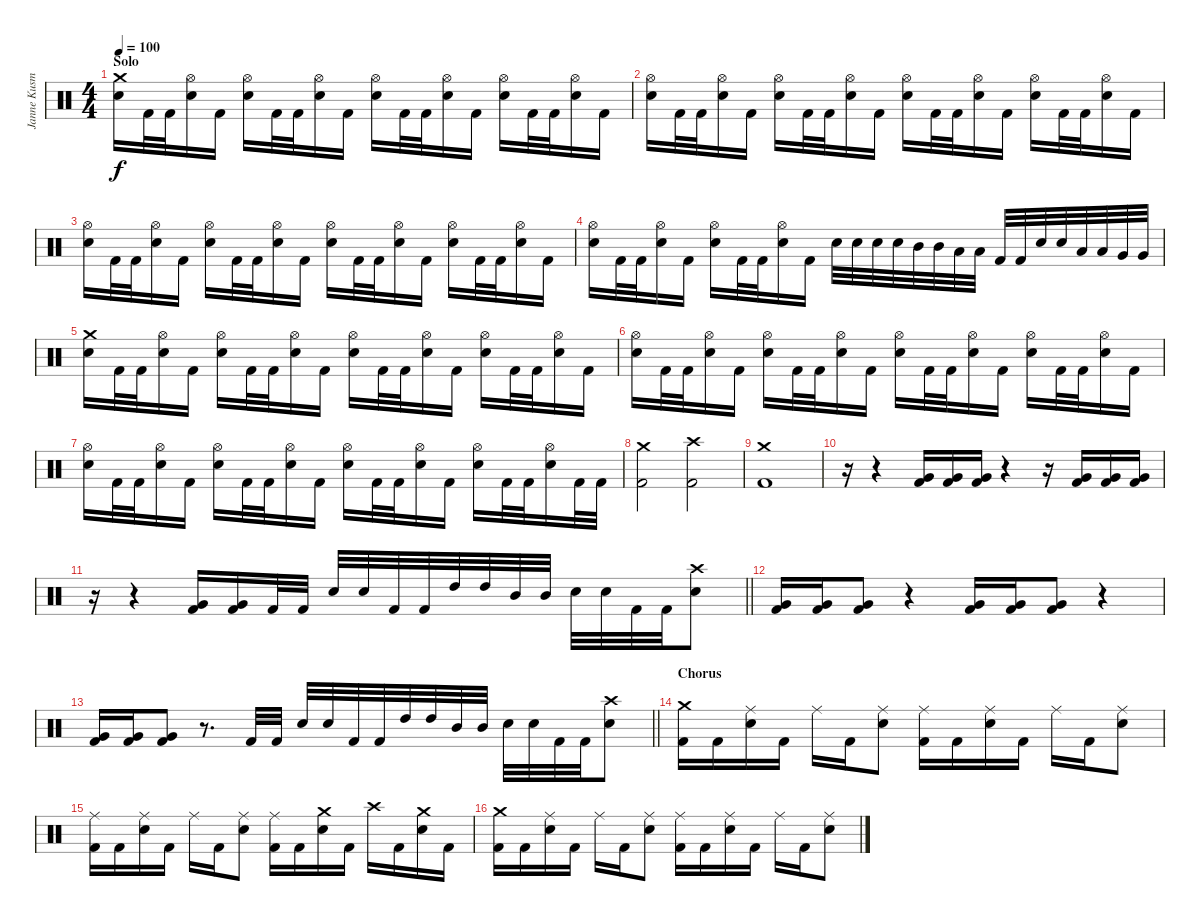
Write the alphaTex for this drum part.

\track ("Janne Kusmin " "Janne Kusm") {instrument percussion}
\staff {score}
\articulation defaults
\ts (4 4)
\section ("" "Solo")
\tempo 100
\clef neutral
\ks c
("Crash medium (hit)" "Electric Snare (hit)").16{dy f} "Kick (hit) 2".32 "Kick (hit) 2".32 ("Hi-Hat (open)" "Electric Snare (hit)").16 "Kick (hit) 2".16 ("Hi-Hat (open)" "Electric Snare (hit)").16 "Kick (hit) 2".32 "Kick (hit) 2".32 ("Hi-Hat (open)" "Electric Snare (hit)").16 "Kick (hit) 2".16 ("Hi-Hat (open)" "Electric Snare (hit)").16 "Kick (hit) 2".32 "Kick (hit) 2".32 ("Hi-Hat (open)" "Electric Snare (hit)").16 "Kick (hit) 2".16 ("Hi-Hat (open)" "Electric Snare (hit)").16 "Kick (hit) 2".32 "Kick (hit) 2".32 ("Hi-Hat (open)" "Electric Snare (hit)").16 "Kick (hit) 2".16 |
("Hi-Hat (open)" "Electric Snare (hit)").16 "Kick (hit) 2".32 "Kick (hit) 2".32 ("Hi-Hat (open)" "Electric Snare (hit)").16 "Kick (hit) 2".16 ("Hi-Hat (open)" "Electric Snare (hit)").16 "Kick (hit) 2".32 "Kick (hit) 2".32 ("Hi-Hat (open)" "Electric Snare (hit)").16 "Kick (hit) 2".16 ("Hi-Hat (open)" "Electric Snare (hit)").16 "Kick (hit) 2".32 "Kick (hit) 2".32 ("Hi-Hat (open)" "Electric Snare (hit)").16 "Kick (hit) 2".16 ("Hi-Hat (open)" "Electric Snare (hit)").16 "Kick (hit) 2".32 "Kick (hit) 2".32 ("Hi-Hat (open)" "Electric Snare (hit)").16 "Kick (hit) 2".16 |
("Hi-Hat (open)" "Electric Snare (hit)").16 "Kick (hit) 2".32 "Kick (hit) 2".32 ("Hi-Hat (open)" "Electric Snare (hit)").16 "Kick (hit) 2".16 ("Hi-Hat (open)" "Electric Snare (hit)").16 "Kick (hit) 2".32 "Kick (hit) 2".32 ("Hi-Hat (open)" "Electric Snare (hit)").16 "Kick (hit) 2".16 ("Hi-Hat (open)" "Electric Snare (hit)").16 "Kick (hit) 2".32 "Kick (hit) 2".32 ("Hi-Hat (open)" "Electric Snare (hit)").16 "Kick (hit) 2".16 ("Hi-Hat (open)" "Electric Snare (hit)").16 "Kick (hit) 2".32 "Kick (hit) 2".32 ("Hi-Hat (open)" "Electric Snare (hit)").16 "Kick (hit) 2".16 |
("Hi-Hat (open)" "Electric Snare (hit)").16 "Kick (hit) 2".32 "Kick (hit) 2".32 ("Hi-Hat (open)" "Electric Snare (hit)").16 "Kick (hit) 2".16 ("Hi-Hat (open)" "Electric Snare (hit)").16 "Kick (hit) 2".32 "Kick (hit) 2".32 ("Hi-Hat (open)" "Electric Snare (hit)").16 "Kick (hit) 2".16 "Electric Snare (hit)".32 "Electric Snare (hit)".32 "Electric Snare (hit)".32 "Electric Snare (hit)".32 "Mid Tom (hit)".32 "Mid Tom (hit)".32 "Low Tom (hit)".32 "Low Tom (hit)".32 "Kick (hit) 2".32 "Kick (hit) 2".32 "Electric Snare (hit)".32 "Electric Snare (hit)".32 "Low Tom (hit)".32 "Low Tom (hit)".32 "Very Low Tom (hit)".32 "Very Low Tom (hit)".32 |
("Crash medium (hit)" "Electric Snare (hit)").16 "Kick (hit) 2".32 "Kick (hit) 2".32 ("Hi-Hat (open)" "Electric Snare (hit)").16 "Kick (hit) 2".16 ("Hi-Hat (open)" "Electric Snare (hit)").16 "Kick (hit) 2".32 "Kick (hit) 2".32 ("Hi-Hat (open)" "Electric Snare (hit)").16 "Kick (hit) 2".16 ("Hi-Hat (open)" "Electric Snare (hit)").16 "Kick (hit) 2".32 "Kick (hit) 2".32 ("Hi-Hat (open)" "Electric Snare (hit)").16 "Kick (hit) 2".16 ("Hi-Hat (open)" "Electric Snare (hit)").16 "Kick (hit) 2".32 "Kick (hit) 2".32 ("Hi-Hat (open)" "Electric Snare (hit)").16 "Kick (hit) 2".16 |
("Hi-Hat (open)" "Electric Snare (hit)").16 "Kick (hit) 2".32 "Kick (hit) 2".32 ("Hi-Hat (open)" "Electric Snare (hit)").16 "Kick (hit) 2".16 ("Hi-Hat (open)" "Electric Snare (hit)").16 "Kick (hit) 2".32 "Kick (hit) 2".32 ("Hi-Hat (open)" "Electric Snare (hit)").16 "Kick (hit) 2".16 ("Hi-Hat (open)" "Electric Snare (hit)").16 "Kick (hit) 2".32 "Kick (hit) 2".32 ("Hi-Hat (open)" "Electric Snare (hit)").16 "Kick (hit) 2".16 ("Hi-Hat (open)" "Electric Snare (hit)").16 "Kick (hit) 2".32 "Kick (hit) 2".32 ("Hi-Hat (open)" "Electric Snare (hit)").16 "Kick (hit) 2".16 |
("Hi-Hat (open)" "Electric Snare (hit)").16 "Kick (hit) 2".32 "Kick (hit) 2".32 ("Hi-Hat (open)" "Electric Snare (hit)").16 "Kick (hit) 2".16 ("Hi-Hat (open)" "Electric Snare (hit)").16 "Kick (hit) 2".32 "Kick (hit) 2".32 ("Hi-Hat (open)" "Electric Snare (hit)").16 "Kick (hit) 2".16 ("Hi-Hat (open)" "Electric Snare (hit)").16 "Kick (hit) 2".32 "Kick (hit) 2".32 ("Hi-Hat (open)" "Electric Snare (hit)").16 "Kick (hit) 2".16 ("Hi-Hat (open)" "Electric Snare (hit)").16 "Kick (hit) 2".32 "Kick (hit) 2".32 ("Hi-Hat (open)" "Electric Snare (hit)").16 "Kick (hit) 2".32 "Kick (hit) 2".32 |
("Crash medium (hit)" "Kick (hit) 2").2 ("Crash high (hit)" "Kick (hit) 2").2 |
("Crash medium (hit)" "Kick (hit) 2").1 |
r.16 r.4 ("Very Low Tom (hit)" "Kick (hit) 2").16 ("Very Low Tom (hit)" "Kick (hit) 2").16 ("Very Low Tom (hit)" "Kick (hit) 2").16 r.4 r.16 ("Very Low Tom (hit)" "Kick (hit) 2").16 ("Very Low Tom (hit)" "Kick (hit) 2").16 ("Very Low Tom (hit)" "Kick (hit) 2").16 |
\barLineRight lightlight
r.16 r.4 ("Very Low Tom (hit)" "Kick (hit) 2").16 ("Very Low Tom (hit)" "Kick (hit) 2").16 "Kick (hit) 2".32 "Kick (hit) 2".32 "Electric Snare (hit)".32 "Electric Snare (hit)".32 "Kick (hit) 2".32 "Kick (hit) 2".32 "High Tom (hit)".32 "High Tom (hit)".32 "Mid Tom (hit)".32 "Mid Tom (hit)".32 "Electric Snare (hit)".32 "Electric Snare (hit)".32 "Kick (hit) 2".32 "Kick (hit) 2".32 ("Crash high (hit)" "Electric Snare (hit)").8 |
("Very Low Tom (hit)" "Kick (hit) 2").16 ("Very Low Tom (hit)" "Kick (hit) 2").16 ("Very Low Tom (hit)" "Kick (hit) 2").8 r.4 ("Very Low Tom (hit)" "Kick (hit) 2").16 ("Very Low Tom (hit)" "Kick (hit) 2").16 ("Very Low Tom (hit)" "Kick (hit) 2").8 r.4 |
\barLineRight lightlight
("Very Low Tom (hit)" "Kick (hit) 2").16 ("Very Low Tom (hit)" "Kick (hit) 2").16 ("Very Low Tom (hit)" "Kick (hit) 2").8 r.8{d} "Kick (hit) 2".32 "Kick (hit) 2".32 "Electric Snare (hit)".32 "Electric Snare (hit)".32 "Kick (hit) 2".32 "Kick (hit) 2".32 "High Tom (hit)".32 "High Tom (hit)".32 "Mid Tom (hit)".32 "Mid Tom (hit)".32 "Electric Snare (hit)".32 "Electric Snare (hit)".32 "Kick (hit) 2".32 "Kick (hit) 2".32 ("Crash high (hit)" "Electric Snare (hit)").8 |
\section ("" "Chorus")
("Crash medium (hit)" "Kick (hit) 2").16 "Kick (hit) 2".16 ("Ride (middle)" "Electric Snare (hit)").16 "Kick (hit) 2".16 "Ride (middle)".16 "Kick (hit) 2".16 ("Ride (middle)" "Electric Snare (hit)").8 ("Ride (middle)" "Kick (hit) 2").16 "Kick (hit) 2".16 ("Ride (middle)" "Electric Snare (hit)").16 "Kick (hit) 2".16 "Ride (middle)".16 "Kick (hit) 2".16 ("Ride (middle)" "Electric Snare (hit)").8 |
("Ride (middle)" "Kick (hit) 2").16 "Kick (hit) 2".16 ("Ride (middle)" "Electric Snare (hit)").16 "Kick (hit) 2".16 "Ride (middle)".16 "Kick (hit) 2".16 ("Ride (middle)" "Electric Snare (hit)").8 ("Ride (middle)" "Kick (hit) 2").16 "Kick (hit) 2".16 ("Crash medium (hit)" "Electric Snare (hit)").16 "Kick (hit) 2".16 "Crash high (hit)".16 "Kick (hit) 2".16 ("Crash medium (hit)" "Electric Snare (hit)").16 "Kick (hit) 2".16 |
("Crash medium (hit)" "Kick (hit) 2").16 "Kick (hit) 2".16 ("Ride (middle)" "Electric Snare (hit)").16 "Kick (hit) 2".16 "Ride (middle)".16 "Kick (hit) 2".16 ("Ride (middle)" "Electric Snare (hit)").8 ("Ride (middle)" "Kick (hit) 2").16 "Kick (hit) 2".16 ("Ride (middle)" "Electric Snare (hit)").16 "Kick (hit) 2".16 "Ride (middle)".16 "Kick (hit) 2".16 ("Ride (middle)" "Electric Snare (hit)").8
